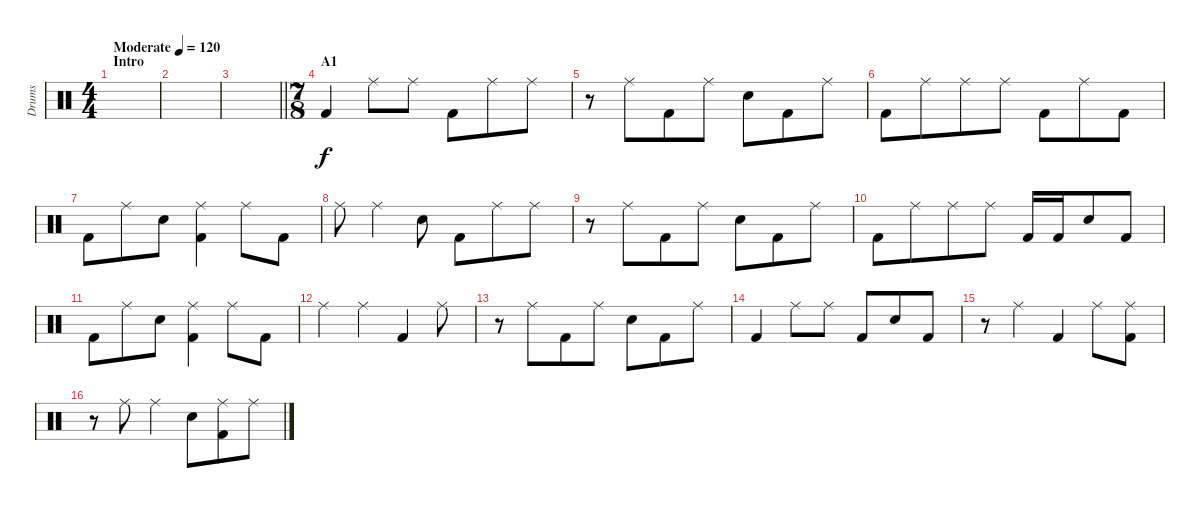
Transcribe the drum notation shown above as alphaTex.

\track ("Drums" "Drums") {instrument percussion}
\staff {score}
\articulation defaults
\ts (4 4)
\section ("" "Intro")
\tempo (120 "Moderate")
\clef neutral
\ks c
|
|
\barLineRight lightlight
|
\ts (7 8)
\section ("" "A1")
"Kick (hit) 2".4 "Ride (middle)".8 "Ride (middle)".8 "Kick (hit) 2".8 "Ride (middle)".8 "Ride (middle)".8 |
r.8 "Ride (middle)".8 "Kick (hit) 2".8 "Ride (middle)".8 "Snare (hit) 2".8 "Kick (hit) 2".8 "Ride (middle)".8 |
"Kick (hit) 2".8 "Ride (middle)".8 "Ride (middle)".8 "Ride (middle)".8 "Kick (hit) 2".8 "Ride (middle)".8 "Kick (hit) 2".8 |
"Kick (hit) 2".8 "Ride (middle)".8 "Snare (hit) 2".8 ("Ride (middle)" "Kick (hit) 2").4 "Ride (middle)".8 "Kick (hit) 2".8 |
"Ride (middle)".8 "Ride (middle)".4 "Snare (hit) 2".8 "Kick (hit) 2".8 "Ride (middle)".8 "Ride (middle)".8 |
r.8 "Ride (middle)".8 "Kick (hit) 2".8 "Ride (middle)".8 "Snare (hit) 2".8 "Kick (hit) 2".8 "Ride (middle)".8 |
"Kick (hit) 2".8 "Ride (middle)".8 "Ride (middle)".8 "Ride (middle)".8 "Kick (hit) 2".16 "Kick (hit) 2".16 "Snare (hit) 2".8 "Kick (hit) 2".8 |
"Kick (hit) 2".8 "Ride (middle)".8 "Snare (hit) 2".8 ("Ride (middle)" "Kick (hit) 2").4 "Ride (middle)".8 "Kick (hit) 2".8 |
"Ride (middle)".4 "Ride (middle)".4 "Kick (hit) 2".4 "Ride (middle)".8 |
r.8 "Ride (middle)".8 "Kick (hit) 2".8 "Ride (middle)".8 "Snare (hit) 2".8 "Kick (hit) 2".8 "Ride (middle)".8 |
"Kick (hit) 2".4 "Ride (middle)".8 "Ride (middle)".8 "Kick (hit) 2".8 "Snare (hit) 2".8 "Kick (hit) 2".8 |
r.8 "Ride (middle)".4 "Kick (hit) 2".4 "Ride (middle)".8 ("Ride (middle)" "Kick (hit) 2").8 |
r.8 "Ride (middle)".8 "Ride (middle)".4 "Snare (hit) 2".8 ("Ride (middle)" "Kick (hit) 2").8 "Ride (middle)".8
